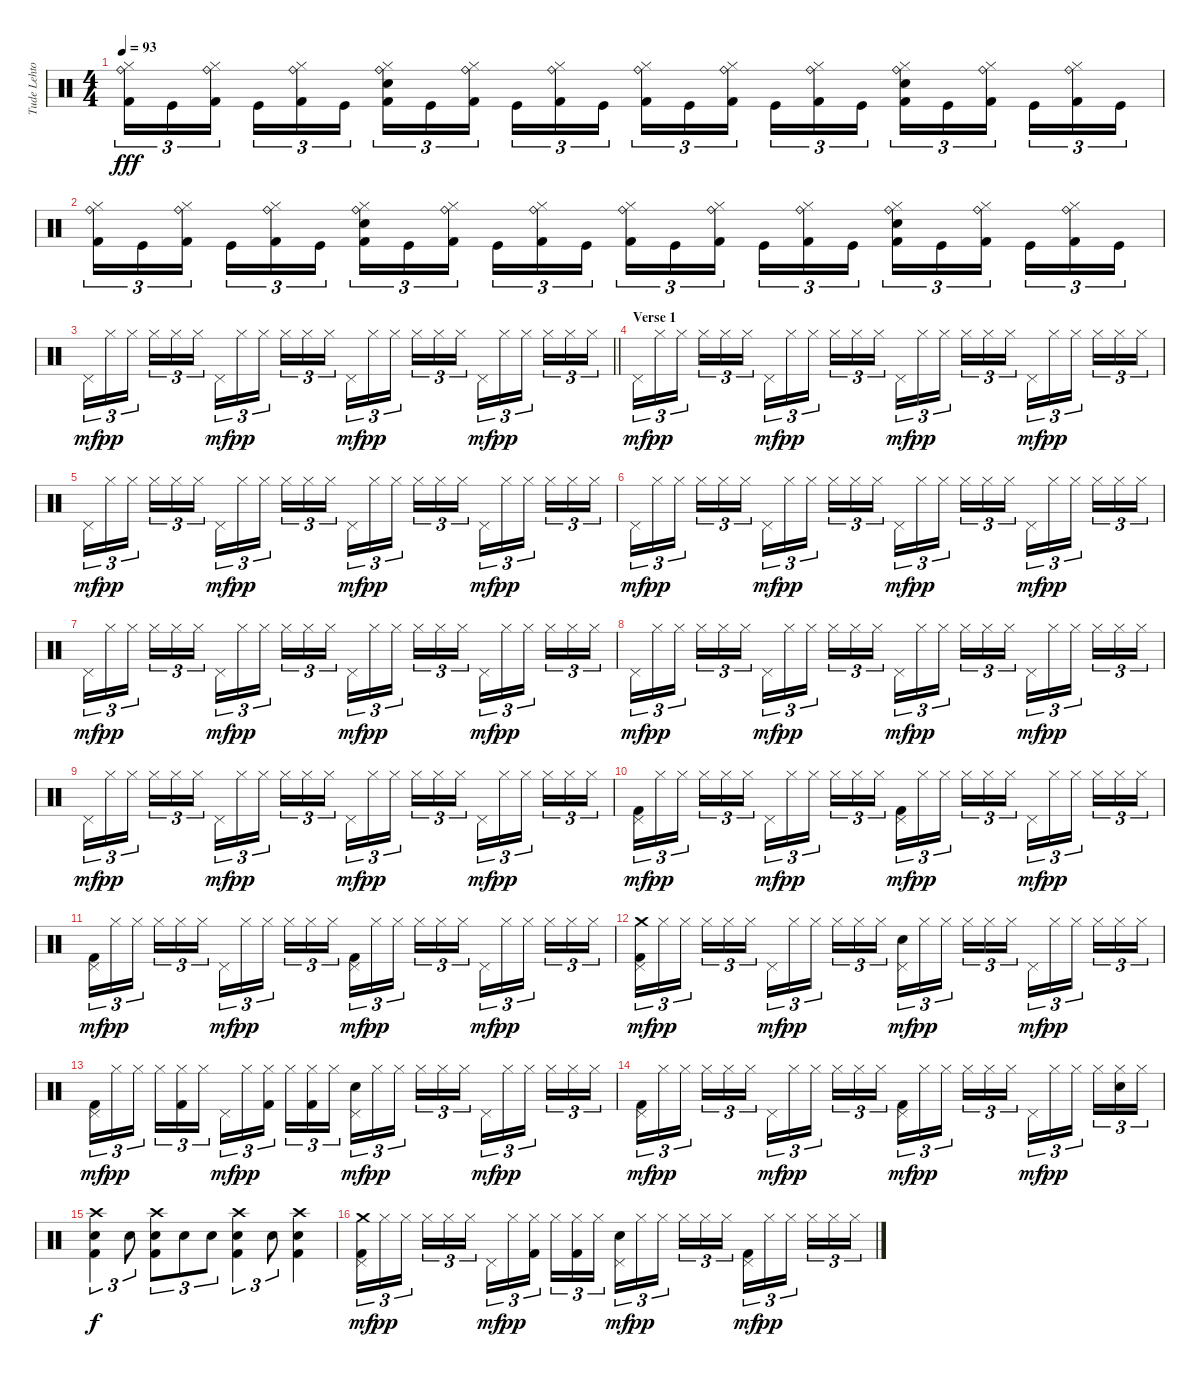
\track ("Tude Lehtonen" "Tude Lehto") {instrument percussion}
\staff {score}
\articulation defaults
\ts (4 4)
\tempo 93
\clef neutral
\ks aminor
("Hi-Hat (closed)" "Ride (bell)" "Kick (hit) 2").16{tu (3 2) dy fff} "Kick (hit)".16{tu (3 2)} ("Hi-Hat (closed)" "Ride (bell)" "Kick (hit) 2").16{tu (3 2)} "Kick (hit)".16{tu (3 2)} ("Hi-Hat (closed)" "Ride (bell)" "Kick (hit) 2").16{tu (3 2)} "Kick (hit)".16{tu (3 2)} ("Hi-Hat (closed)" "Ride (bell)" "Electric Snare (hit)" "Kick (hit) 2").16{tu (3 2)} "Kick (hit)".16{tu (3 2)} ("Hi-Hat (closed)" "Ride (bell)" "Kick (hit) 2").16{tu (3 2)} "Kick (hit)".16{tu (3 2)} ("Hi-Hat (closed)" "Ride (bell)" "Kick (hit) 2").16{tu (3 2)} "Kick (hit)".16{tu (3 2)} ("Hi-Hat (closed)" "Ride (bell)" "Kick (hit) 2").16{tu (3 2)} "Kick (hit)".16{tu (3 2)} ("Hi-Hat (closed)" "Ride (bell)" "Kick (hit) 2").16{tu (3 2)} "Kick (hit)".16{tu (3 2)} ("Hi-Hat (closed)" "Ride (bell)" "Kick (hit) 2").16{tu (3 2)} "Kick (hit)".16{tu (3 2)} ("Hi-Hat (closed)" "Ride (bell)" "Electric Snare (hit)" "Kick (hit) 2").16{tu (3 2)} "Kick (hit)".16{tu (3 2)} ("Hi-Hat (closed)" "Ride (bell)" "Kick (hit) 2").16{tu (3 2)} "Kick (hit)".16{tu (3 2)} ("Hi-Hat (closed)" "Ride (bell)" "Kick (hit) 2").16{tu (3 2)} "Kick (hit)".16{tu (3 2)} |
("Hi-Hat (closed)" "Ride (bell)" "Kick (hit) 2").16{tu (3 2)} "Kick (hit)".16{tu (3 2)} ("Hi-Hat (closed)" "Ride (bell)" "Kick (hit) 2").16{tu (3 2)} "Kick (hit)".16{tu (3 2)} ("Hi-Hat (closed)" "Ride (bell)" "Kick (hit) 2").16{tu (3 2)} "Kick (hit)".16{tu (3 2)} ("Hi-Hat (closed)" "Ride (bell)" "Electric Snare (hit)" "Kick (hit) 2").16{tu (3 2)} "Kick (hit)".16{tu (3 2)} ("Hi-Hat (closed)" "Ride (bell)" "Kick (hit) 2").16{tu (3 2)} "Kick (hit)".16{tu (3 2)} ("Hi-Hat (closed)" "Ride (bell)" "Kick (hit) 2").16{tu (3 2)} "Kick (hit)".16{tu (3 2)} ("Hi-Hat (closed)" "Ride (bell)" "Kick (hit) 2").16{tu (3 2)} "Kick (hit)".16{tu (3 2)} ("Hi-Hat (closed)" "Ride (bell)" "Kick (hit) 2").16{tu (3 2)} "Kick (hit)".16{tu (3 2)} ("Hi-Hat (closed)" "Ride (bell)" "Kick (hit) 2").16{tu (3 2)} "Kick (hit)".16{tu (3 2)} ("Hi-Hat (closed)" "Ride (bell)" "Electric Snare (hit)" "Kick (hit) 2").16{tu (3 2)} "Kick (hit)".16{tu (3 2)} ("Hi-Hat (closed)" "Ride (bell)" "Kick (hit) 2").16{tu (3 2)} "Kick (hit)".16{tu (3 2)} ("Hi-Hat (closed)" "Ride (bell)" "Kick (hit) 2").16{tu (3 2)} "Kick (hit)".16{tu (3 2)} |
\barLineRight lightlight "Pedal Hi-Hat (hit)".16{tu (3 2) dy mf} "Hi-Hat (closed)".16{tu (3 2) dy pp} "Hi-Hat (closed)".16{tu (3 2)} "Hi-Hat (closed)".16{tu (3 2)} "Hi-Hat (closed)".16{tu (3 2)} "Hi-Hat (closed)".16{tu (3 2)} "Pedal Hi-Hat (hit)".16{tu (3 2) dy mf} "Hi-Hat (closed)".16{tu (3 2) dy pp} "Hi-Hat (closed)".16{tu (3 2)} "Hi-Hat (closed)".16{tu (3 2)} "Hi-Hat (closed)".16{tu (3 2)} "Hi-Hat (closed)".16{tu (3 2)} "Pedal Hi-Hat (hit)".16{tu (3 2) dy mf} "Hi-Hat (closed)".16{tu (3 2) dy pp} "Hi-Hat (closed)".16{tu (3 2)} "Hi-Hat (closed)".16{tu (3 2)} "Hi-Hat (closed)".16{tu (3 2)} "Hi-Hat (closed)".16{tu (3 2)} "Pedal Hi-Hat (hit)".16{tu (3 2) dy mf} "Hi-Hat (closed)".16{tu (3 2) dy pp} "Hi-Hat (closed)".16{tu (3 2)} "Hi-Hat (closed)".16{tu (3 2)} "Hi-Hat (closed)".16{tu (3 2)} "Hi-Hat (closed)".16{tu (3 2)}
|
\section ("" "Verse 1")
"Pedal Hi-Hat (hit)".16{tu (3 2) dy mf} "Hi-Hat (closed)".16{tu (3 2) dy pp} "Hi-Hat (closed)".16{tu (3 2)} "Hi-Hat (closed)".16{tu (3 2)} "Hi-Hat (closed)".16{tu (3 2)} "Hi-Hat (closed)".16{tu (3 2)} "Pedal Hi-Hat (hit)".16{tu (3 2) dy mf} "Hi-Hat (closed)".16{tu (3 2) dy pp} "Hi-Hat (closed)".16{tu (3 2)} "Hi-Hat (closed)".16{tu (3 2)} "Hi-Hat (closed)".16{tu (3 2)} "Hi-Hat (closed)".16{tu (3 2)} "Pedal Hi-Hat (hit)".16{tu (3 2) dy mf} "Hi-Hat (closed)".16{tu (3 2) dy pp} "Hi-Hat (closed)".16{tu (3 2)} "Hi-Hat (closed)".16{tu (3 2)} "Hi-Hat (closed)".16{tu (3 2)} "Hi-Hat (closed)".16{tu (3 2)} "Pedal Hi-Hat (hit)".16{tu (3 2) dy mf} "Hi-Hat (closed)".16{tu (3 2) dy pp} "Hi-Hat (closed)".16{tu (3 2)} "Hi-Hat (closed)".16{tu (3 2)} "Hi-Hat (closed)".16{tu (3 2)} "Hi-Hat (closed)".16{tu (3 2)} |
"Pedal Hi-Hat (hit)".16{tu (3 2) dy mf} "Hi-Hat (closed)".16{tu (3 2) dy pp} "Hi-Hat (closed)".16{tu (3 2)} "Hi-Hat (closed)".16{tu (3 2)} "Hi-Hat (closed)".16{tu (3 2)} "Hi-Hat (closed)".16{tu (3 2)} "Pedal Hi-Hat (hit)".16{tu (3 2) dy mf} "Hi-Hat (closed)".16{tu (3 2) dy pp} "Hi-Hat (closed)".16{tu (3 2)} "Hi-Hat (closed)".16{tu (3 2)} "Hi-Hat (closed)".16{tu (3 2)} "Hi-Hat (closed)".16{tu (3 2)} "Pedal Hi-Hat (hit)".16{tu (3 2) dy mf} "Hi-Hat (closed)".16{tu (3 2) dy pp} "Hi-Hat (closed)".16{tu (3 2)} "Hi-Hat (closed)".16{tu (3 2)} "Hi-Hat (closed)".16{tu (3 2)} "Hi-Hat (closed)".16{tu (3 2)} "Pedal Hi-Hat (hit)".16{tu (3 2) dy mf} "Hi-Hat (closed)".16{tu (3 2) dy pp} "Hi-Hat (closed)".16{tu (3 2)} "Hi-Hat (closed)".16{tu (3 2)} "Hi-Hat (closed)".16{tu (3 2)} "Hi-Hat (closed)".16{tu (3 2)} |
"Pedal Hi-Hat (hit)".16{tu (3 2) dy mf} "Hi-Hat (closed)".16{tu (3 2) dy pp} "Hi-Hat (closed)".16{tu (3 2)} "Hi-Hat (closed)".16{tu (3 2)} "Hi-Hat (closed)".16{tu (3 2)} "Hi-Hat (closed)".16{tu (3 2)} "Pedal Hi-Hat (hit)".16{tu (3 2) dy mf} "Hi-Hat (closed)".16{tu (3 2) dy pp} "Hi-Hat (closed)".16{tu (3 2)} "Hi-Hat (closed)".16{tu (3 2)} "Hi-Hat (closed)".16{tu (3 2)} "Hi-Hat (closed)".16{tu (3 2)} "Pedal Hi-Hat (hit)".16{tu (3 2) dy mf} "Hi-Hat (closed)".16{tu (3 2) dy pp} "Hi-Hat (closed)".16{tu (3 2)} "Hi-Hat (closed)".16{tu (3 2)} "Hi-Hat (closed)".16{tu (3 2)} "Hi-Hat (closed)".16{tu (3 2)} "Pedal Hi-Hat (hit)".16{tu (3 2) dy mf} "Hi-Hat (closed)".16{tu (3 2) dy pp} "Hi-Hat (closed)".16{tu (3 2)} "Hi-Hat (closed)".16{tu (3 2)} "Hi-Hat (closed)".16{tu (3 2)} "Hi-Hat (closed)".16{tu (3 2)} |
"Pedal Hi-Hat (hit)".16{tu (3 2) dy mf} "Hi-Hat (closed)".16{tu (3 2) dy pp} "Hi-Hat (closed)".16{tu (3 2)} "Hi-Hat (closed)".16{tu (3 2)} "Hi-Hat (closed)".16{tu (3 2)} "Hi-Hat (closed)".16{tu (3 2)} "Pedal Hi-Hat (hit)".16{tu (3 2) dy mf} "Hi-Hat (closed)".16{tu (3 2) dy pp} "Hi-Hat (closed)".16{tu (3 2)} "Hi-Hat (closed)".16{tu (3 2)} "Hi-Hat (closed)".16{tu (3 2)} "Hi-Hat (closed)".16{tu (3 2)} "Pedal Hi-Hat (hit)".16{tu (3 2) dy mf} "Hi-Hat (closed)".16{tu (3 2) dy pp} "Hi-Hat (closed)".16{tu (3 2)} "Hi-Hat (closed)".16{tu (3 2)} "Hi-Hat (closed)".16{tu (3 2)} "Hi-Hat (closed)".16{tu (3 2)} "Pedal Hi-Hat (hit)".16{tu (3 2) dy mf} "Hi-Hat (closed)".16{tu (3 2) dy pp} "Hi-Hat (closed)".16{tu (3 2)} "Hi-Hat (closed)".16{tu (3 2)} "Hi-Hat (closed)".16{tu (3 2)} "Hi-Hat (closed)".16{tu (3 2)} |
"Pedal Hi-Hat (hit)".16{tu (3 2) dy mf} "Hi-Hat (closed)".16{tu (3 2) dy pp} "Hi-Hat (closed)".16{tu (3 2)} "Hi-Hat (closed)".16{tu (3 2)} "Hi-Hat (closed)".16{tu (3 2)} "Hi-Hat (closed)".16{tu (3 2)} "Pedal Hi-Hat (hit)".16{tu (3 2) dy mf} "Hi-Hat (closed)".16{tu (3 2) dy pp} "Hi-Hat (closed)".16{tu (3 2)} "Hi-Hat (closed)".16{tu (3 2)} "Hi-Hat (closed)".16{tu (3 2)} "Hi-Hat (closed)".16{tu (3 2)} "Pedal Hi-Hat (hit)".16{tu (3 2) dy mf} "Hi-Hat (closed)".16{tu (3 2) dy pp} "Hi-Hat (closed)".16{tu (3 2)} "Hi-Hat (closed)".16{tu (3 2)} "Hi-Hat (closed)".16{tu (3 2)} "Hi-Hat (closed)".16{tu (3 2)} "Pedal Hi-Hat (hit)".16{tu (3 2) dy mf} "Hi-Hat (closed)".16{tu (3 2) dy pp} "Hi-Hat (closed)".16{tu (3 2)} "Hi-Hat (closed)".16{tu (3 2)} "Hi-Hat (closed)".16{tu (3 2)} "Hi-Hat (closed)".16{tu (3 2)} |
"Pedal Hi-Hat (hit)".16{tu (3 2) dy mf} "Hi-Hat (closed)".16{tu (3 2) dy pp} "Hi-Hat (closed)".16{tu (3 2)} "Hi-Hat (closed)".16{tu (3 2)} "Hi-Hat (closed)".16{tu (3 2)} "Hi-Hat (closed)".16{tu (3 2)} "Pedal Hi-Hat (hit)".16{tu (3 2) dy mf} "Hi-Hat (closed)".16{tu (3 2) dy pp} "Hi-Hat (closed)".16{tu (3 2)} "Hi-Hat (closed)".16{tu (3 2)} "Hi-Hat (closed)".16{tu (3 2)} "Hi-Hat (closed)".16{tu (3 2)} "Pedal Hi-Hat (hit)".16{tu (3 2) dy mf} "Hi-Hat (closed)".16{tu (3 2) dy pp} "Hi-Hat (closed)".16{tu (3 2)} "Hi-Hat (closed)".16{tu (3 2)} "Hi-Hat (closed)".16{tu (3 2)} "Hi-Hat (closed)".16{tu (3 2)} "Pedal Hi-Hat (hit)".16{tu (3 2) dy mf} "Hi-Hat (closed)".16{tu (3 2) dy pp} "Hi-Hat (closed)".16{tu (3 2)} "Hi-Hat (closed)".16{tu (3 2)} "Hi-Hat (closed)".16{tu (3 2)} "Hi-Hat (closed)".16{tu (3 2)} |
("Pedal Hi-Hat (hit)" "Kick (hit) 2").16{tu (3 2) dy mf} "Hi-Hat (closed)".16{tu (3 2) dy pp} "Hi-Hat (closed)".16{tu (3 2)} "Hi-Hat (closed)".16{tu (3 2)} "Hi-Hat (closed)".16{tu (3 2)} "Hi-Hat (closed)".16{tu (3 2)} "Pedal Hi-Hat (hit)".16{tu (3 2) dy mf} "Hi-Hat (closed)".16{tu (3 2) dy pp} "Hi-Hat (closed)".16{tu (3 2)} "Hi-Hat (closed)".16{tu (3 2)} "Hi-Hat (closed)".16{tu (3 2)} "Hi-Hat (closed)".16{tu (3 2)} ("Pedal Hi-Hat (hit)" "Kick (hit) 2").16{tu (3 2) dy mf} "Hi-Hat (closed)".16{tu (3 2) dy pp} "Hi-Hat (closed)".16{tu (3 2)} "Hi-Hat (closed)".16{tu (3 2)} "Hi-Hat (closed)".16{tu (3 2)} "Hi-Hat (closed)".16{tu (3 2)} "Pedal Hi-Hat (hit)".16{tu (3 2) dy mf} "Hi-Hat (closed)".16{tu (3 2) dy pp} "Hi-Hat (closed)".16{tu (3 2)} "Hi-Hat (closed)".16{tu (3 2)} "Hi-Hat (closed)".16{tu (3 2)} "Hi-Hat (closed)".16{tu (3 2)} |
("Pedal Hi-Hat (hit)" "Kick (hit) 2").16{tu (3 2) dy mf} "Hi-Hat (closed)".16{tu (3 2) dy pp} "Hi-Hat (closed)".16{tu (3 2)} "Hi-Hat (closed)".16{tu (3 2)} "Hi-Hat (closed)".16{tu (3 2)} "Hi-Hat (closed)".16{tu (3 2)} "Pedal Hi-Hat (hit)".16{tu (3 2) dy mf} "Hi-Hat (closed)".16{tu (3 2) dy pp} "Hi-Hat (closed)".16{tu (3 2)} "Hi-Hat (closed)".16{tu (3 2)} "Hi-Hat (closed)".16{tu (3 2)} "Hi-Hat (closed)".16{tu (3 2)} ("Pedal Hi-Hat (hit)" "Kick (hit) 2").16{tu (3 2) dy mf} "Hi-Hat (closed)".16{tu (3 2) dy pp} "Hi-Hat (closed)".16{tu (3 2)} "Hi-Hat (closed)".16{tu (3 2)} "Hi-Hat (closed)".16{tu (3 2)} "Hi-Hat (closed)".16{tu (3 2)} "Pedal Hi-Hat (hit)".16{tu (3 2) dy mf} "Hi-Hat (closed)".16{tu (3 2) dy pp} "Hi-Hat (closed)".16{tu (3 2)} "Hi-Hat (closed)".16{tu (3 2)} "Hi-Hat (closed)".16{tu (3 2)} "Hi-Hat (closed)".16{tu (3 2)} |
("Pedal Hi-Hat (hit)" "Crash medium (hit)" "Kick (hit) 2").16{tu (3 2) dy mf} "Hi-Hat (closed)".16{tu (3 2) dy pp} "Hi-Hat (closed)".16{tu (3 2)} "Hi-Hat (closed)".16{tu (3 2)} "Hi-Hat (closed)".16{tu (3 2)} "Hi-Hat (closed)".16{tu (3 2)} "Pedal Hi-Hat (hit)".16{tu (3 2) dy mf} "Hi-Hat (closed)".16{tu (3 2) dy pp} "Hi-Hat (closed)".16{tu (3 2)} "Hi-Hat (closed)".16{tu (3 2)} "Hi-Hat (closed)".16{tu (3 2)} "Hi-Hat (closed)".16{tu (3 2)} ("Pedal Hi-Hat (hit)" "Electric Snare (hit)").16{tu (3 2) dy mf} "Hi-Hat (closed)".16{tu (3 2) dy pp} "Hi-Hat (closed)".16{tu (3 2)} "Hi-Hat (closed)".16{tu (3 2)} "Hi-Hat (closed)".16{tu (3 2)} "Hi-Hat (closed)".16{tu (3 2)} "Pedal Hi-Hat (hit)".16{tu (3 2) dy mf} "Hi-Hat (closed)".16{tu (3 2) dy pp} "Hi-Hat (closed)".16{tu (3 2)} "Hi-Hat (closed)".16{tu (3 2)} "Hi-Hat (closed)".16{tu (3 2)} "Hi-Hat (closed)".16{tu (3 2)} |
("Pedal Hi-Hat (hit)" "Kick (hit) 2").16{tu (3 2) dy mf} "Hi-Hat (closed)".16{tu (3 2) dy pp} "Hi-Hat (closed)".16{tu (3 2)} "Hi-Hat (closed)".16{tu (3 2)} ("Hi-Hat (closed)" "Kick (hit) 2").16{tu (3 2)} "Hi-Hat (closed)".16{tu (3 2)} "Pedal Hi-Hat (hit)".16{tu (3 2) dy mf} "Hi-Hat (closed)".16{tu (3 2) dy pp} ("Hi-Hat (closed)" "Kick (hit) 2").16{tu (3 2)} "Hi-Hat (closed)".16{tu (3 2)} ("Hi-Hat (closed)" "Kick (hit) 2").16{tu (3 2)} "Hi-Hat (closed)".16{tu (3 2)} ("Pedal Hi-Hat (hit)" "Electric Snare (hit)").16{tu (3 2) dy mf} "Hi-Hat (closed)".16{tu (3 2) dy pp} "Hi-Hat (closed)".16{tu (3 2)} "Hi-Hat (closed)".16{tu (3 2)} "Hi-Hat (closed)".16{tu (3 2)} "Hi-Hat (closed)".16{tu (3 2)} "Pedal Hi-Hat (hit)".16{tu (3 2) dy mf} "Hi-Hat (closed)".16{tu (3 2) dy pp} "Hi-Hat (closed)".16{tu (3 2)} "Hi-Hat (closed)".16{tu (3 2)} "Hi-Hat (closed)".16{tu (3 2)} "Hi-Hat (closed)".16{tu (3 2)} |
("Pedal Hi-Hat (hit)" "Kick (hit) 2").16{tu (3 2) dy mf} "Hi-Hat (closed)".16{tu (3 2) dy pp} "Hi-Hat (closed)".16{tu (3 2)} "Hi-Hat (closed)".16{tu (3 2)} "Hi-Hat (closed)".16{tu (3 2)} "Hi-Hat (closed)".16{tu (3 2)} "Pedal Hi-Hat (hit)".16{tu (3 2) dy mf} "Hi-Hat (closed)".16{tu (3 2) dy pp} "Hi-Hat (closed)".16{tu (3 2)} "Hi-Hat (closed)".16{tu (3 2)} "Hi-Hat (closed)".16{tu (3 2)} "Hi-Hat (closed)".16{tu (3 2)} ("Pedal Hi-Hat (hit)" "Kick (hit) 2").16{tu (3 2) dy mf} "Hi-Hat (closed)".16{tu (3 2) dy pp} "Hi-Hat (closed)".16{tu (3 2)} "Hi-Hat (closed)".16{tu (3 2)} "Hi-Hat (closed)".16{tu (3 2)} "Hi-Hat (closed)".16{tu (3 2)} "Pedal Hi-Hat (hit)".16{tu (3 2) dy mf} "Hi-Hat (closed)".16{tu (3 2) dy pp} "Hi-Hat (closed)".16{tu (3 2)} "Hi-Hat (closed)".16{tu (3 2)} ("Hi-Hat (closed)" "Electric Snare (hit)").16{tu (3 2)} "Hi-Hat (closed)".16{tu (3 2)} |
("Crash high (hit)" "Electric Snare (hit)" "Kick (hit) 2").4{tu (3 2) dy f} "Electric Snare (hit)".8{tu (3 2)} ("Crash high (hit)" "Electric Snare (hit)" "Kick (hit) 2").8{tu (3 2)} "Electric Snare (hit)".8{tu (3 2)} "Electric Snare (hit)".8{tu (3 2)} ("Crash high (hit)" "Electric Snare (hit)" "Kick (hit) 2").4{tu (3 2)} "Electric Snare (hit)".8{tu (3 2)} ("Crash high (hit)" "Electric Snare (hit)" "Kick (hit) 2").4 |
("Pedal Hi-Hat (hit)" "Crash medium (hit)" "Kick (hit) 2").16{tu (3 2) dy mf} "Hi-Hat (closed)".16{tu (3 2) dy pp} "Hi-Hat (closed)".16{tu (3 2)} "Hi-Hat (closed)".16{tu (3 2)} "Hi-Hat (closed)".16{tu (3 2)} "Hi-Hat (closed)".16{tu (3 2)} "Pedal Hi-Hat (hit)".16{tu (3 2) dy mf} "Hi-Hat (closed)".16{tu (3 2) dy pp} ("Hi-Hat (closed)" "Kick (hit) 2").16{tu (3 2)} "Hi-Hat (closed)".16{tu (3 2)} ("Hi-Hat (closed)" "Kick (hit) 2").16{tu (3 2)} "Hi-Hat (closed)".16{tu (3 2)} ("Pedal Hi-Hat (hit)" "Electric Snare (hit)").16{tu (3 2) dy mf} "Hi-Hat (closed)".16{tu (3 2) dy pp} "Hi-Hat (closed)".16{tu (3 2)} "Hi-Hat (closed)".16{tu (3 2)} "Hi-Hat (closed)".16{tu (3 2)} "Hi-Hat (closed)".16{tu (3 2)} ("Pedal Hi-Hat (hit)" "Kick (hit) 2").16{tu (3 2) dy mf} "Hi-Hat (closed)".16{tu (3 2) dy pp} "Hi-Hat (closed)".16{tu (3 2)} "Hi-Hat (closed)".16{tu (3 2)} "Hi-Hat (closed)".16{tu (3 2)} "Hi-Hat (closed)".16{tu (3 2)}
